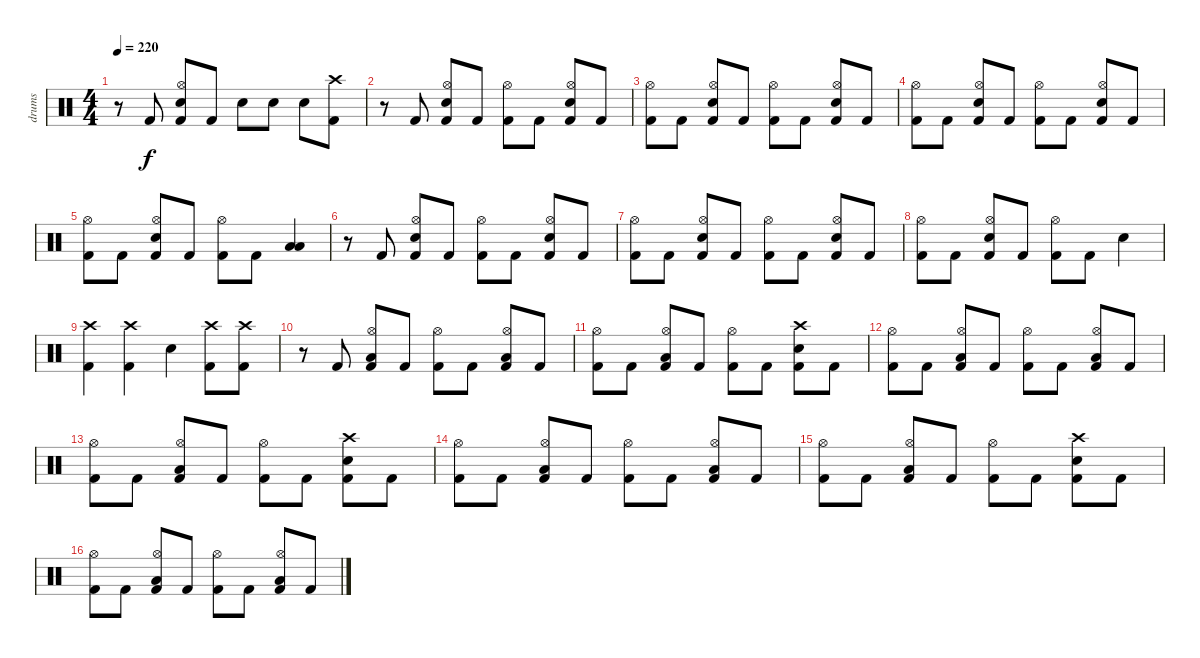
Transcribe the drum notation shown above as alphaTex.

\track ("drums" "drums") {instrument percussion}
\staff {score}
\articulation defaults
\ts (4 4)
\tempo 220
\clef neutral
\ks c
r.8{dy f} "Kick (hit) 2".8 ("Hi-Hat (open)" "Electric Snare (hit)" "Kick (hit) 2").8 "Kick (hit) 2".8 "Electric Snare (hit)".8 "Electric Snare (hit)".8 "Electric Snare (hit)".8 ("Crash high (hit)" "Kick (hit) 2").8 |
r.8 "Kick (hit) 2".8 ("Hi-Hat (open)" "Electric Snare (hit)" "Kick (hit) 2").8 "Kick (hit) 2".8 ("Hi-Hat (open)" "Kick (hit) 2").8 "Kick (hit) 2".8 ("Hi-Hat (open)" "Electric Snare (hit)" "Kick (hit) 2").8 "Kick (hit) 2".8 |
("Hi-Hat (open)" "Kick (hit) 2").8 "Kick (hit) 2".8 ("Hi-Hat (open)" "Electric Snare (hit)" "Kick (hit) 2").8 "Kick (hit) 2".8 ("Hi-Hat (open)" "Kick (hit) 2").8 "Kick (hit) 2".8 ("Hi-Hat (open)" "Electric Snare (hit)" "Kick (hit) 2").8 "Kick (hit) 2".8 |
("Hi-Hat (open)" "Kick (hit) 2").8 "Kick (hit) 2".8 ("Hi-Hat (open)" "Electric Snare (hit)" "Kick (hit) 2").8 "Kick (hit) 2".8 ("Hi-Hat (open)" "Kick (hit) 2").8 "Kick (hit) 2".8 ("Hi-Hat (open)" "Electric Snare (hit)" "Kick (hit) 2").8 "Kick (hit) 2".8 |
("Hi-Hat (open)" "Kick (hit) 2").8 "Kick (hit) 2".8 ("Hi-Hat (open)" "Electric Snare (hit)" "Kick (hit) 2").8 "Kick (hit) 2".8 ("Hi-Hat (open)" "Kick (hit) 2").8 "Kick (hit) 2".8 ("Low Tom (hit)" "Low Floor Tom (hit)").4 |
r.8 "Kick (hit) 2".8 ("Hi-Hat (open)" "Electric Snare (hit)" "Kick (hit) 2").8 "Kick (hit) 2".8 ("Hi-Hat (open)" "Kick (hit) 2").8 "Kick (hit) 2".8 ("Hi-Hat (open)" "Electric Snare (hit)" "Kick (hit) 2").8 "Kick (hit) 2".8 |
("Hi-Hat (open)" "Kick (hit) 2").8 "Kick (hit) 2".8 ("Hi-Hat (open)" "Electric Snare (hit)" "Kick (hit) 2").8 "Kick (hit) 2".8 ("Hi-Hat (open)" "Kick (hit) 2").8 "Kick (hit) 2".8 ("Hi-Hat (open)" "Electric Snare (hit)" "Kick (hit) 2").8 "Kick (hit) 2".8 |
("Hi-Hat (open)" "Kick (hit) 2").8 "Kick (hit) 2".8 ("Hi-Hat (open)" "Electric Snare (hit)" "Kick (hit) 2").8 "Kick (hit) 2".8 ("Hi-Hat (open)" "Kick (hit) 2").8 "Kick (hit) 2".8 "Electric Snare (hit)".4 |
("Crash high (hit)" "Kick (hit) 2").4 ("Crash high (hit)" "Kick (hit) 2").4 "Electric Snare (hit)".4 ("Crash high (hit)" "Kick (hit) 2").8 ("Crash high (hit)" "Kick (hit) 2").8 |
r.8 "Kick (hit) 2".8 ("Hi-Hat (open)" "Low Tom (hit)" "Kick (hit) 2").8 "Kick (hit) 2".8 ("Hi-Hat (open)" "Kick (hit) 2").8 "Kick (hit) 2".8 ("Hi-Hat (open)" "Low Tom (hit)" "Kick (hit) 2").8 "Kick (hit) 2".8 |
("Hi-Hat (open)" "Kick (hit) 2").8 "Kick (hit) 2".8 ("Hi-Hat (open)" "Low Tom (hit)" "Kick (hit) 2").8 "Kick (hit) 2".8 ("Hi-Hat (open)" "Kick (hit) 2").8 "Kick (hit) 2".8 ("Crash high (hit)" "Electric Snare (hit)" "Kick (hit) 2").8 "Kick (hit) 2".8 |
("Hi-Hat (open)" "Kick (hit) 2").8 "Kick (hit) 2".8 ("Hi-Hat (open)" "Low Tom (hit)" "Kick (hit) 2").8 "Kick (hit) 2".8 ("Hi-Hat (open)" "Kick (hit) 2").8 "Kick (hit) 2".8 ("Hi-Hat (open)" "Low Tom (hit)" "Kick (hit) 2").8 "Kick (hit) 2".8 |
("Hi-Hat (open)" "Kick (hit) 2").8 "Kick (hit) 2".8 ("Hi-Hat (open)" "Low Tom (hit)" "Kick (hit) 2").8 "Kick (hit) 2".8 ("Hi-Hat (open)" "Kick (hit) 2").8 "Kick (hit) 2".8 ("Crash high (hit)" "Electric Snare (hit)" "Kick (hit) 2").8 "Kick (hit) 2".8 |
("Hi-Hat (open)" "Kick (hit) 2").8 "Kick (hit) 2".8 ("Hi-Hat (open)" "Low Tom (hit)" "Kick (hit) 2").8 "Kick (hit) 2".8 ("Hi-Hat (open)" "Kick (hit) 2").8 "Kick (hit) 2".8 ("Hi-Hat (open)" "Low Tom (hit)" "Kick (hit) 2").8 "Kick (hit) 2".8 |
("Hi-Hat (open)" "Kick (hit) 2").8 "Kick (hit) 2".8 ("Hi-Hat (open)" "Low Tom (hit)" "Kick (hit) 2").8 "Kick (hit) 2".8 ("Hi-Hat (open)" "Kick (hit) 2").8 "Kick (hit) 2".8 ("Crash high (hit)" "Electric Snare (hit)" "Kick (hit) 2").8 "Kick (hit) 2".8 |
("Hi-Hat (open)" "Kick (hit) 2").8 "Kick (hit) 2".8 ("Hi-Hat (open)" "Low Tom (hit)" "Kick (hit) 2").8 "Kick (hit) 2".8 ("Hi-Hat (open)" "Kick (hit) 2").8 "Kick (hit) 2".8 ("Hi-Hat (open)" "Low Tom (hit)" "Kick (hit) 2").8 "Kick (hit) 2".8
